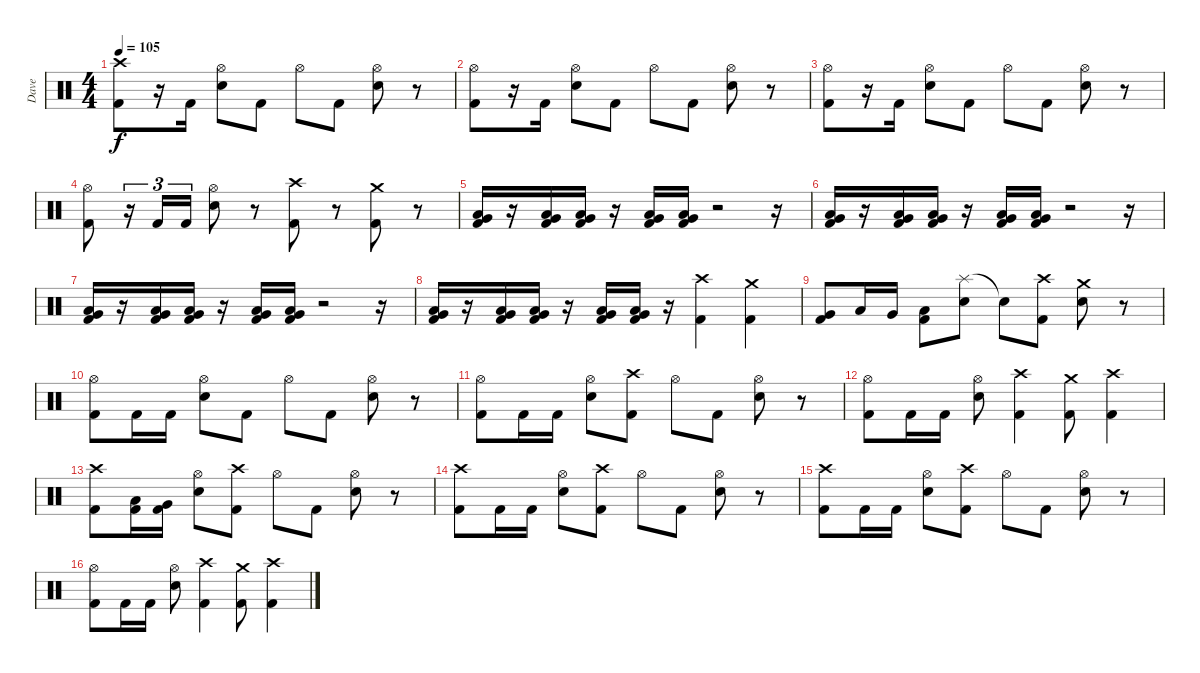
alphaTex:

\track ("Dave" "Dave") {instrument percussion}
\staff {score}
\articulation defaults
\ts (4 4)
\tempo 105
\clef neutral
\ks c
("Crash high (hit)" "Kick (hit) 2").8{dy f} r.16 "Kick (hit) 2".16 ("Hi-Hat (open)" "Snare (hit) 2").8 "Kick (hit) 2".8 "Hi-Hat (open)".8 "Kick (hit) 2".8 ("Hi-Hat (open)" "Snare (hit) 2").8 r.8 |
("Hi-Hat (open)" "Kick (hit) 2").8 r.16 "Kick (hit) 2".16 ("Hi-Hat (open)" "Snare (hit) 2").8 "Kick (hit) 2".8 "Hi-Hat (open)".8 "Kick (hit) 2".8 ("Hi-Hat (open)" "Snare (hit) 2").8 r.8 |
("Hi-Hat (open)" "Kick (hit) 2").8 r.16 "Kick (hit) 2".16 ("Hi-Hat (open)" "Snare (hit) 2").8 "Kick (hit) 2".8 "Hi-Hat (open)".8 "Kick (hit) 2".8 ("Hi-Hat (open)" "Snare (hit) 2").8 r.8 |
("Hi-Hat (open)" "Kick (hit) 2").8 r.16{tu (3 2)} "Kick (hit) 2".16{tu (3 2)} "Kick (hit) 2".16{tu (3 2)} ("Hi-Hat (open)" "Snare (hit) 2").8 r.8 ("Crash high (hit)" "Kick (hit) 2").8 r.8 ("Crash medium (hit)" "Kick (hit) 2").8 r.8 |
("Very Low Tom (hit)" "Low Floor Tom (hit)" "Kick (hit) 2").16 r.16 ("Low Floor Tom (hit)" "Very Low Tom (hit)" "Kick (hit) 2").16 ("Low Floor Tom (hit)" "Very Low Tom (hit)" "Kick (hit) 2").16 r.16 ("Low Floor Tom (hit)" "Very Low Tom (hit)" "Kick (hit) 2").16 ("Low Floor Tom (hit)" "Very Low Tom (hit)" "Kick (hit) 2").16 r.2 r.16 |
("Very Low Tom (hit)" "Low Floor Tom (hit)" "Kick (hit) 2").16 r.16 ("Low Floor Tom (hit)" "Very Low Tom (hit)" "Kick (hit) 2").16 ("Low Floor Tom (hit)" "Very Low Tom (hit)" "Kick (hit) 2").16 r.16 ("Low Floor Tom (hit)" "Very Low Tom (hit)" "Kick (hit) 2").16 ("Low Floor Tom (hit)" "Very Low Tom (hit)" "Kick (hit) 2").16 r.2 r.16 |
("Very Low Tom (hit)" "Low Floor Tom (hit)" "Kick (hit) 2").16 r.16 ("Low Floor Tom (hit)" "Very Low Tom (hit)" "Kick (hit) 2").16 ("Low Floor Tom (hit)" "Very Low Tom (hit)" "Kick (hit) 2").16 r.16 ("Low Floor Tom (hit)" "Very Low Tom (hit)" "Kick (hit) 2").16 ("Low Floor Tom (hit)" "Very Low Tom (hit)" "Kick (hit) 2").16 r.2 r.16 |
("Very Low Tom (hit)" "Low Floor Tom (hit)" "Kick (hit) 2").16 r.16 ("Low Floor Tom (hit)" "Very Low Tom (hit)" "Kick (hit) 2").16 ("Low Floor Tom (hit)" "Very Low Tom (hit)" "Kick (hit) 2").16 r.16 ("Low Floor Tom (hit)" "Very Low Tom (hit)" "Kick (hit) 2").16 ("Low Floor Tom (hit)" "Very Low Tom (hit)" "Kick (hit) 2").16 r.16 ("Crash high (hit)" "Kick (hit) 2").4 ("Crash medium (hit)" "Kick (hit) 2").4 |
("Very Low Tom (hit)" "Kick (hit) 2").8 "Low Floor Tom (hit)".16 "Very Low Tom (hit)".16 ("Low Floor Tom (hit)" "Kick (hit) 2").8 ("Splash (hit)" "Snare (hit) 2").8 "Snare (hit)"{t}.8 ("Crash high (hit)" "Kick (hit) 2").8 ("Crash medium (hit)" "Snare (hit) 2").8 r.8 |
("Hi-Hat (open)" "Kick (hit) 2").8 "Kick (hit) 2".16 "Kick (hit) 2".16 ("Hi-Hat (open)" "Snare (hit) 2").8 "Kick (hit) 2".8 "Hi-Hat (open)".8 "Kick (hit) 2".8 ("Hi-Hat (open)" "Snare (hit) 2").8 r.8 |
("Hi-Hat (open)" "Kick (hit) 2").8 "Kick (hit) 2".16 "Kick (hit) 2".16 ("Hi-Hat (open)" "Snare (hit) 2").8 ("Crash high (hit)" "Kick (hit) 2").8 "Hi-Hat (open)".8 "Kick (hit) 2".8 ("Hi-Hat (open)" "Snare (hit) 2").8 r.8 |
("Hi-Hat (open)" "Kick (hit) 2").8 "Kick (hit) 2".16 "Kick (hit) 2".16 ("Hi-Hat (open)" "Snare (hit) 2").8 ("Crash high (hit)" "Kick (hit) 2").4 ("Crash medium (hit)" "Kick (hit) 2").8 ("Crash high (hit)" "Kick (hit) 2").4 |
("Crash high (hit)" "Kick (hit) 2").8 ("Low Tom (hit)" "Kick (hit) 2").16 ("Very Low Tom (hit)" "Kick (hit) 2").16 ("Hi-Hat (open)" "Snare (hit) 2").8 ("Crash high (hit)" "Kick (hit) 2").8 "Hi-Hat (open)".8 "Kick (hit) 2".8 ("Hi-Hat (open)" "Snare (hit) 2").8 r.8 |
("Crash high (hit)" "Kick (hit) 2").8 "Kick (hit) 2".16 "Kick (hit) 2".16 ("Hi-Hat (open)" "Snare (hit) 2").8 ("Crash high (hit)" "Kick (hit) 2").8 "Hi-Hat (open)".8 "Kick (hit) 2".8 ("Hi-Hat (open)" "Snare (hit) 2").8 r.8 |
("Crash high (hit)" "Kick (hit) 2").8 "Kick (hit) 2".16 "Kick (hit) 2".16 ("Hi-Hat (open)" "Snare (hit) 2").8 ("Crash high (hit)" "Kick (hit) 2").8 "Hi-Hat (open)".8 "Kick (hit) 2".8 ("Hi-Hat (open)" "Snare (hit) 2").8 r.8 |
("Hi-Hat (open)" "Kick (hit) 2").8 "Kick (hit) 2".16 "Kick (hit) 2".16 ("Hi-Hat (open)" "Snare (hit) 2").8 ("Crash high (hit)" "Kick (hit) 2").4 ("Crash medium (hit)" "Kick (hit) 2").8 ("Crash high (hit)" "Kick (hit) 2").4
